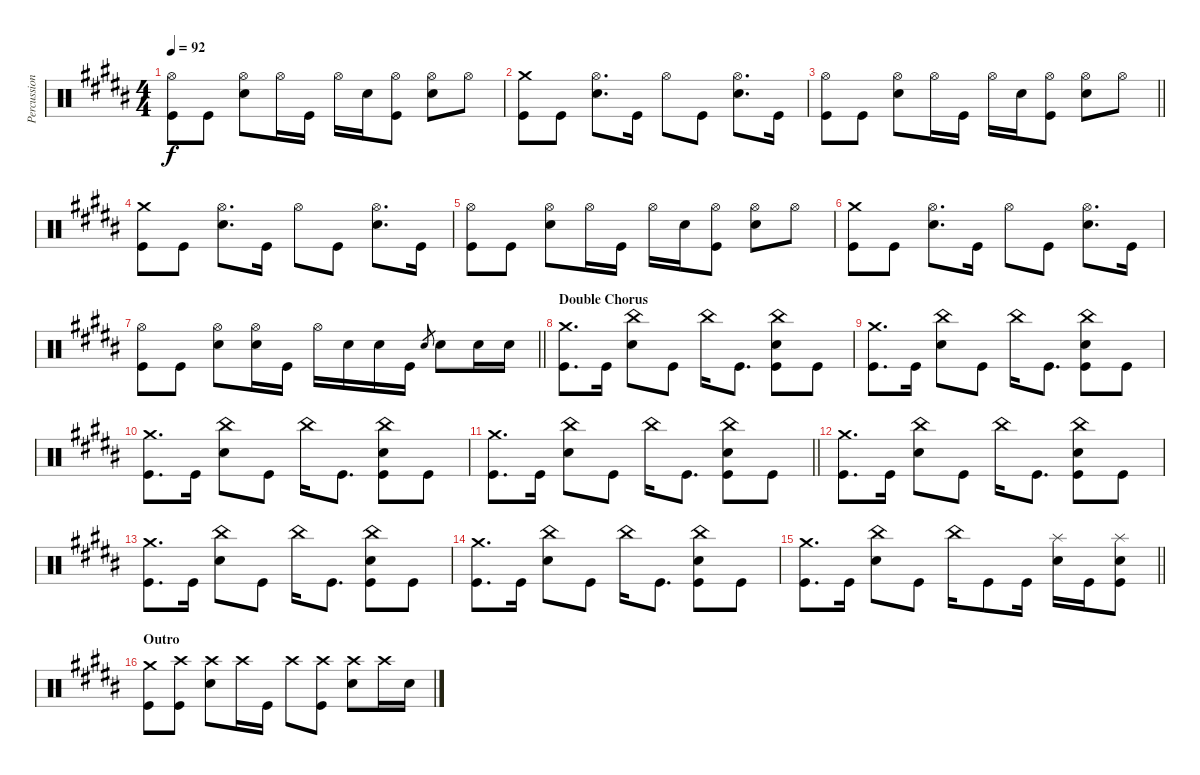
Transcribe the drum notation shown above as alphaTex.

\track ("Percussion" "Percussion") {instrument percussion}
\staff {score}
\articulation defaults
\ts (4 4)
\tempo 92
\clef neutral
\ks b
("Hi-Hat (open)" "Kick (hit)").8{dy f} "Kick (hit)".8 ("Hi-Hat (open)" "Electric Snare (hit)").8 "Hi-Hat (open)".16 "Kick (hit)".16 "Hi-Hat (open)".16 "Electric Snare (hit)".16 ("Hi-Hat (open)" "Kick (hit)").8 ("Hi-Hat (open)" "Electric Snare (hit)").8 "Hi-Hat (open)".8 |
("Crash medium (hit)" "Kick (hit)").8 "Kick (hit)".8 ("Hi-Hat (open)" "Electric Snare (hit)").8{d} "Kick (hit)".16 "Hi-Hat (open)".8 "Kick (hit)".8 ("Hi-Hat (open)" "Electric Snare (hit)").8{d} "Kick (hit)".16 |
\barLineRight lightlight
("Hi-Hat (open)" "Kick (hit)").8 "Kick (hit)".8 ("Hi-Hat (open)" "Electric Snare (hit)").8 "Hi-Hat (open)".16 "Kick (hit)".16 "Hi-Hat (open)".16 "Electric Snare (hit)".16 ("Hi-Hat (open)" "Kick (hit)").8 ("Hi-Hat (open)" "Electric Snare (hit)").8 "Hi-Hat (open)".8 |
("Crash medium (hit)" "Kick (hit)").8 "Kick (hit)".8 ("Hi-Hat (open)" "Electric Snare (hit)").8{d} "Kick (hit)".16 "Hi-Hat (open)".8 "Kick (hit)".8 ("Hi-Hat (open)" "Electric Snare (hit)").8{d} "Kick (hit)".16 |
("Hi-Hat (open)" "Kick (hit)").8 "Kick (hit)".8 ("Hi-Hat (open)" "Electric Snare (hit)").8 "Hi-Hat (open)".16 "Kick (hit)".16 "Hi-Hat (open)".16 "Electric Snare (hit)".16 ("Hi-Hat (open)" "Kick (hit)").8 ("Hi-Hat (open)" "Electric Snare (hit)").8 "Hi-Hat (open)".8 |
("Crash medium (hit)" "Kick (hit)").8 "Kick (hit)".8 ("Hi-Hat (open)" "Electric Snare (hit)").8{d} "Kick (hit)".16 "Hi-Hat (open)".8 "Kick (hit)".8 ("Hi-Hat (open)" "Electric Snare (hit)").8{d} "Kick (hit)".16 |
\barLineRight lightlight
("Hi-Hat (open)" "Kick (hit)").8 "Kick (hit)".8 ("Hi-Hat (open)" "Electric Snare (hit)").8 ("Hi-Hat (open)" "Electric Snare (hit)").16 "Kick (hit)".16 "Hi-Hat (open)".16 "Electric Snare (hit)".16 "Electric Snare (hit)".16 "Kick (hit)".16 "Electric Snare (hit)".8{gr} "Electric Snare (hit)".8 "Electric Snare (hit)".16 "Electric Snare (hit)".16 |
\section ("" "Double Chorus")
("Crash medium (hit)" "Kick (hit)").8{d} "Kick (hit)".16 ("China (hit)" "Electric Snare (hit)").8 "Kick (hit)".8 "China (hit)".16 "Kick (hit)".8{d} ("China (hit)" "Electric Snare (hit)" "Kick (hit)").8 "Kick (hit)".8 |
("Crash medium (hit)" "Kick (hit)").8{d} "Kick (hit)".16 ("China (hit)" "Electric Snare (hit)").8 "Kick (hit)".8 "China (hit)".16 "Kick (hit)".8{d} ("China (hit)" "Electric Snare (hit)" "Kick (hit)").8 "Kick (hit)".8 |
("Crash medium (hit)" "Kick (hit)").8{d} "Kick (hit)".16 ("China (hit)" "Electric Snare (hit)").8 "Kick (hit)".8 "China (hit)".16 "Kick (hit)".8{d} ("China (hit)" "Electric Snare (hit)" "Kick (hit)").8 "Kick (hit)".8 |
\barLineRight lightlight
("Crash medium (hit)" "Kick (hit)").8{d} "Kick (hit)".16 ("China (hit)" "Electric Snare (hit)").8 "Kick (hit)".8 "China (hit)".16 "Kick (hit)".8{d} ("China (hit)" "Electric Snare (hit)" "Kick (hit)").8 "Kick (hit)".8 |
("Crash medium (hit)" "Kick (hit)").8{d} "Kick (hit)".16 ("China (hit)" "Electric Snare (hit)").8 "Kick (hit)".8 "China (hit)".16 "Kick (hit)".8{d} ("China (hit)" "Electric Snare (hit)" "Kick (hit)").8 "Kick (hit)".8 |
("Crash medium (hit)" "Kick (hit)").8{d} "Kick (hit)".16 ("China (hit)" "Electric Snare (hit)").8 "Kick (hit)".8 "China (hit)".16 "Kick (hit)".8{d} ("China (hit)" "Electric Snare (hit)" "Kick (hit)").8 "Kick (hit)".8 |
("Crash medium (hit)" "Kick (hit)").8{d} "Kick (hit)".16 ("China (hit)" "Electric Snare (hit)").8 "Kick (hit)".8 "China (hit)".16 "Kick (hit)".8{d} ("China (hit)" "Electric Snare (hit)" "Kick (hit)").8 "Kick (hit)".8 |
\barLineRight lightlight
("Crash medium (hit)" "Kick (hit)").8{d} "Kick (hit)".16 ("China (hit)" "Electric Snare (hit)").8 "Kick (hit)".8 "China (hit)".16 "Kick (hit)".8 "Kick (hit)".16 ("Splash (hit)" "Electric Snare (hit)").16 "Kick (hit)".16 ("Splash (hit)" "Electric Snare (hit)" "Kick (hit)").8 |
\section ("" "Outro")
("Crash medium (hit)" "Kick (hit)").8 ("Crash high (hit)" "Kick (hit)").8 ("Crash high (hit)" "Electric Snare (hit)").8 "Crash high (hit)".16 "Kick (hit)".16 "Crash high (hit)".8 ("Crash high (hit)" "Kick (hit)").8 ("Crash high (hit)" "Electric Snare (hit)").8 "Crash high (hit)".16 "Electric Snare (hit)".16
